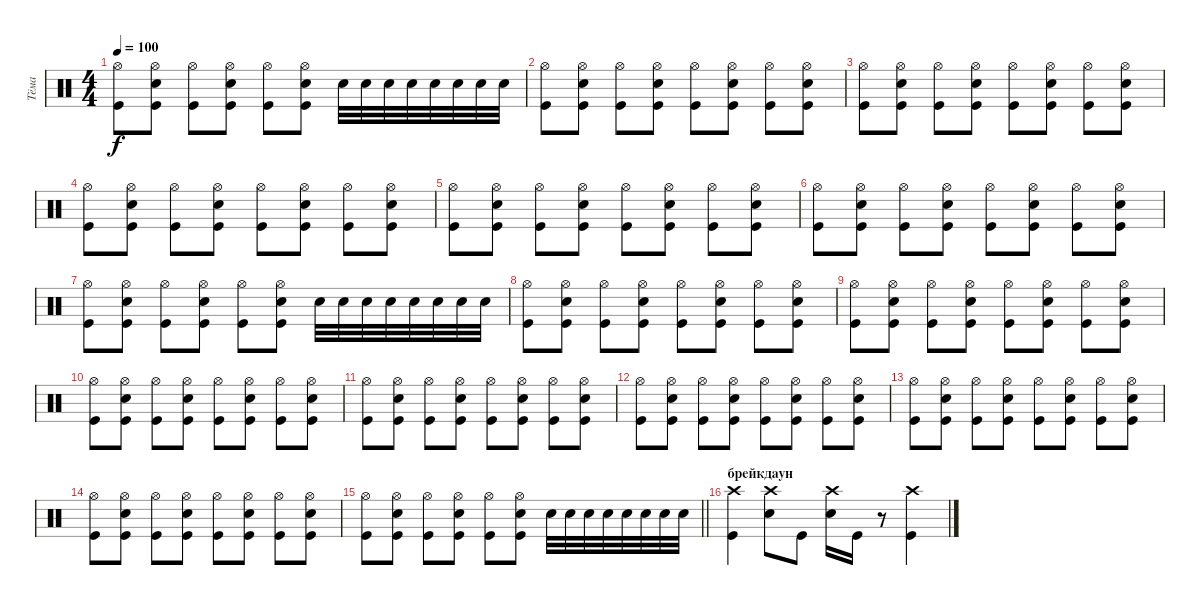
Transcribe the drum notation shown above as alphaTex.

\track ("Тёма" "Тёма") {instrument percussion}
\staff {score}
\articulation defaults
\ts (4 4)
\tempo 100
\clef neutral
\ks c
("Hi-Hat (open)" "Kick (hit)").8{dy f} ("Hi-Hat (open)" "Snare (hit) 2" "Kick (hit)").8 ("Hi-Hat (open)" "Kick (hit)").8 ("Hi-Hat (open)" "Snare (hit) 2" "Kick (hit)").8 ("Hi-Hat (open)" "Kick (hit)").8 ("Hi-Hat (open)" "Snare (hit) 2" "Kick (hit)").8 "Snare (hit) 2".32 "Snare (hit) 2".32 "Snare (hit) 2".32 "Snare (hit) 2".32 "Snare (hit) 2".32 "Snare (hit) 2".32 "Snare (hit) 2".32 "Snare (hit) 2".32 |
("Hi-Hat (open)" "Kick (hit)").8 ("Hi-Hat (open)" "Snare (hit) 2" "Kick (hit)").8 ("Hi-Hat (open)" "Kick (hit)").8 ("Hi-Hat (open)" "Snare (hit) 2" "Kick (hit)").8 ("Hi-Hat (open)" "Kick (hit)").8 ("Hi-Hat (open)" "Snare (hit) 2" "Kick (hit)").8 ("Hi-Hat (open)" "Kick (hit)").8 ("Hi-Hat (open)" "Snare (hit) 2" "Kick (hit)").8 |
("Hi-Hat (open)" "Kick (hit)").8 ("Hi-Hat (open)" "Snare (hit) 2" "Kick (hit)").8 ("Hi-Hat (open)" "Kick (hit)").8 ("Hi-Hat (open)" "Snare (hit) 2" "Kick (hit)").8 ("Hi-Hat (open)" "Kick (hit)").8 ("Hi-Hat (open)" "Snare (hit) 2" "Kick (hit)").8 ("Hi-Hat (open)" "Kick (hit)").8 ("Hi-Hat (open)" "Snare (hit) 2" "Kick (hit)").8 |
("Hi-Hat (open)" "Kick (hit)").8 ("Hi-Hat (open)" "Snare (hit) 2" "Kick (hit)").8 ("Hi-Hat (open)" "Kick (hit)").8 ("Hi-Hat (open)" "Snare (hit) 2" "Kick (hit)").8 ("Hi-Hat (open)" "Kick (hit)").8 ("Hi-Hat (open)" "Snare (hit) 2" "Kick (hit)").8 ("Hi-Hat (open)" "Kick (hit)").8 ("Hi-Hat (open)" "Snare (hit) 2" "Kick (hit)").8 |
("Hi-Hat (open)" "Kick (hit)").8 ("Hi-Hat (open)" "Snare (hit) 2" "Kick (hit)").8 ("Hi-Hat (open)" "Kick (hit)").8 ("Hi-Hat (open)" "Snare (hit) 2" "Kick (hit)").8 ("Hi-Hat (open)" "Kick (hit)").8 ("Hi-Hat (open)" "Snare (hit) 2" "Kick (hit)").8 ("Hi-Hat (open)" "Kick (hit)").8 ("Hi-Hat (open)" "Snare (hit) 2" "Kick (hit)").8 |
("Hi-Hat (open)" "Kick (hit)").8 ("Hi-Hat (open)" "Snare (hit) 2" "Kick (hit)").8 ("Hi-Hat (open)" "Kick (hit)").8 ("Hi-Hat (open)" "Snare (hit) 2" "Kick (hit)").8 ("Hi-Hat (open)" "Kick (hit)").8 ("Hi-Hat (open)" "Snare (hit) 2" "Kick (hit)").8 ("Hi-Hat (open)" "Kick (hit)").8 ("Hi-Hat (open)" "Snare (hit) 2" "Kick (hit)").8 |
("Hi-Hat (open)" "Kick (hit)").8 ("Hi-Hat (open)" "Snare (hit) 2" "Kick (hit)").8 ("Hi-Hat (open)" "Kick (hit)").8 ("Hi-Hat (open)" "Snare (hit) 2" "Kick (hit)").8 ("Hi-Hat (open)" "Kick (hit)").8 ("Hi-Hat (open)" "Snare (hit) 2" "Kick (hit)").8 "Snare (hit) 2".32 "Snare (hit) 2".32 "Snare (hit) 2".32 "Snare (hit) 2".32 "Snare (hit) 2".32 "Snare (hit) 2".32 "Snare (hit) 2".32 "Snare (hit) 2".32 |
("Hi-Hat (open)" "Kick (hit)").8 ("Hi-Hat (open)" "Snare (hit) 2" "Kick (hit)").8 ("Hi-Hat (open)" "Kick (hit)").8 ("Hi-Hat (open)" "Snare (hit) 2" "Kick (hit)").8 ("Hi-Hat (open)" "Kick (hit)").8 ("Hi-Hat (open)" "Snare (hit) 2" "Kick (hit)").8 ("Hi-Hat (open)" "Kick (hit)").8 ("Hi-Hat (open)" "Snare (hit) 2" "Kick (hit)").8 |
("Hi-Hat (open)" "Kick (hit)").8 ("Hi-Hat (open)" "Snare (hit) 2" "Kick (hit)").8 ("Hi-Hat (open)" "Kick (hit)").8 ("Hi-Hat (open)" "Snare (hit) 2" "Kick (hit)").8 ("Hi-Hat (open)" "Kick (hit)").8 ("Hi-Hat (open)" "Snare (hit) 2" "Kick (hit)").8 ("Hi-Hat (open)" "Kick (hit)").8 ("Hi-Hat (open)" "Snare (hit) 2" "Kick (hit)").8 |
("Hi-Hat (open)" "Kick (hit)").8 ("Hi-Hat (open)" "Snare (hit) 2" "Kick (hit)").8 ("Hi-Hat (open)" "Kick (hit)").8 ("Hi-Hat (open)" "Snare (hit) 2" "Kick (hit)").8 ("Hi-Hat (open)" "Kick (hit)").8 ("Hi-Hat (open)" "Snare (hit) 2" "Kick (hit)").8 ("Hi-Hat (open)" "Kick (hit)").8 ("Hi-Hat (open)" "Snare (hit) 2" "Kick (hit)").8 |
("Hi-Hat (open)" "Kick (hit)").8 ("Hi-Hat (open)" "Snare (hit) 2" "Kick (hit)").8 ("Hi-Hat (open)" "Kick (hit)").8 ("Hi-Hat (open)" "Snare (hit) 2" "Kick (hit)").8 ("Hi-Hat (open)" "Kick (hit)").8 ("Hi-Hat (open)" "Snare (hit) 2" "Kick (hit)").8 ("Hi-Hat (open)" "Kick (hit)").8 ("Hi-Hat (open)" "Snare (hit) 2" "Kick (hit)").8 |
("Hi-Hat (open)" "Kick (hit)").8 ("Hi-Hat (open)" "Snare (hit) 2" "Kick (hit)").8 ("Hi-Hat (open)" "Kick (hit)").8 ("Hi-Hat (open)" "Snare (hit) 2" "Kick (hit)").8 ("Hi-Hat (open)" "Kick (hit)").8 ("Hi-Hat (open)" "Snare (hit) 2" "Kick (hit)").8 ("Hi-Hat (open)" "Kick (hit)").8 ("Hi-Hat (open)" "Snare (hit) 2" "Kick (hit)").8 |
("Hi-Hat (open)" "Kick (hit)").8 ("Hi-Hat (open)" "Snare (hit) 2" "Kick (hit)").8 ("Hi-Hat (open)" "Kick (hit)").8 ("Hi-Hat (open)" "Snare (hit) 2" "Kick (hit)").8 ("Hi-Hat (open)" "Kick (hit)").8 ("Hi-Hat (open)" "Snare (hit) 2" "Kick (hit)").8 ("Hi-Hat (open)" "Kick (hit)").8 ("Hi-Hat (open)" "Snare (hit) 2" "Kick (hit)").8 |
("Hi-Hat (open)" "Kick (hit)").8 ("Hi-Hat (open)" "Snare (hit) 2" "Kick (hit)").8 ("Hi-Hat (open)" "Kick (hit)").8 ("Hi-Hat (open)" "Snare (hit) 2" "Kick (hit)").8 ("Hi-Hat (open)" "Kick (hit)").8 ("Hi-Hat (open)" "Snare (hit) 2" "Kick (hit)").8 ("Hi-Hat (open)" "Kick (hit)").8 ("Hi-Hat (open)" "Snare (hit) 2" "Kick (hit)").8 |
\barLineRight lightlight
("Hi-Hat (open)" "Kick (hit)").8 ("Hi-Hat (open)" "Snare (hit) 2" "Kick (hit)").8 ("Hi-Hat (open)" "Kick (hit)").8 ("Hi-Hat (open)" "Snare (hit) 2" "Kick (hit)").8 ("Hi-Hat (open)" "Kick (hit)").8 ("Hi-Hat (open)" "Snare (hit) 2" "Kick (hit)").8 "Snare (hit) 2".32 "Snare (hit) 2".32 "Snare (hit) 2".32 "Snare (hit) 2".32 "Snare (hit) 2".32 "Snare (hit) 2".32 "Snare (hit) 2".32 "Snare (hit) 2".32 |
\section ("" "брейкдаун")
("Crash high (hit)" "Kick (hit)").4 ("Crash high (hit)" "Snare (hit) 2").8 "Kick (hit)".8 ("Crash high (hit)" "Snare (hit) 2").16 "Kick (hit)".16 r.8 ("Crash high (hit)" "Kick (hit)").4
